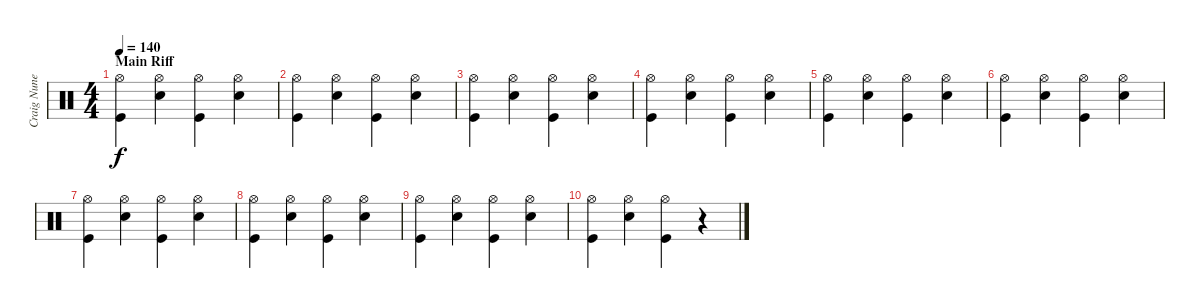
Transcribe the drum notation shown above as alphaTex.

\track ("Craig Nunenmacher" "Craig Nune") {instrument percussion}
\staff {score}
\articulation defaults
\ts (4 4)
\section ("" "Main Riff")
\tempo 140
\clef neutral
\ks c
("Hi-Hat (open)" "Kick (hit)").4{dy f} ("Snare (hit) 2" "Hi-Hat (open)").4 ("Hi-Hat (open)" "Kick (hit)").4 ("Snare (hit) 2" "Hi-Hat (open)").4 |
("Hi-Hat (open)" "Kick (hit)").4 ("Snare (hit) 2" "Hi-Hat (open)").4 ("Hi-Hat (open)" "Kick (hit)").4 ("Snare (hit) 2" "Hi-Hat (open)").4 |
("Hi-Hat (open)" "Kick (hit)").4 ("Snare (hit) 2" "Hi-Hat (open)").4 ("Hi-Hat (open)" "Kick (hit)").4 ("Snare (hit) 2" "Hi-Hat (open)").4 |
("Hi-Hat (open)" "Kick (hit)").4 ("Snare (hit) 2" "Hi-Hat (open)").4 ("Hi-Hat (open)" "Kick (hit)").4 ("Snare (hit) 2" "Hi-Hat (open)").4 |
("Hi-Hat (open)" "Kick (hit)").4 ("Snare (hit) 2" "Hi-Hat (open)").4 ("Hi-Hat (open)" "Kick (hit)").4 ("Snare (hit) 2" "Hi-Hat (open)").4 |
("Hi-Hat (open)" "Kick (hit)").4 ("Snare (hit) 2" "Hi-Hat (open)").4 ("Hi-Hat (open)" "Kick (hit)").4 ("Snare (hit) 2" "Hi-Hat (open)").4 |
("Hi-Hat (open)" "Kick (hit)").4 ("Snare (hit) 2" "Hi-Hat (open)").4 ("Hi-Hat (open)" "Kick (hit)").4 ("Snare (hit) 2" "Hi-Hat (open)").4 |
("Hi-Hat (open)" "Kick (hit)").4 ("Snare (hit) 2" "Hi-Hat (open)").4 ("Hi-Hat (open)" "Kick (hit)").4 ("Snare (hit) 2" "Hi-Hat (open)").4 |
("Hi-Hat (open)" "Kick (hit)").4 ("Snare (hit) 2" "Hi-Hat (open)").4 ("Hi-Hat (open)" "Kick (hit)").4 ("Snare (hit) 2" "Hi-Hat (open)").4 |
("Hi-Hat (open)" "Kick (hit)").4 ("Snare (hit) 2" "Hi-Hat (open)").4 ("Hi-Hat (open)" "Kick (hit)").4 r.4
